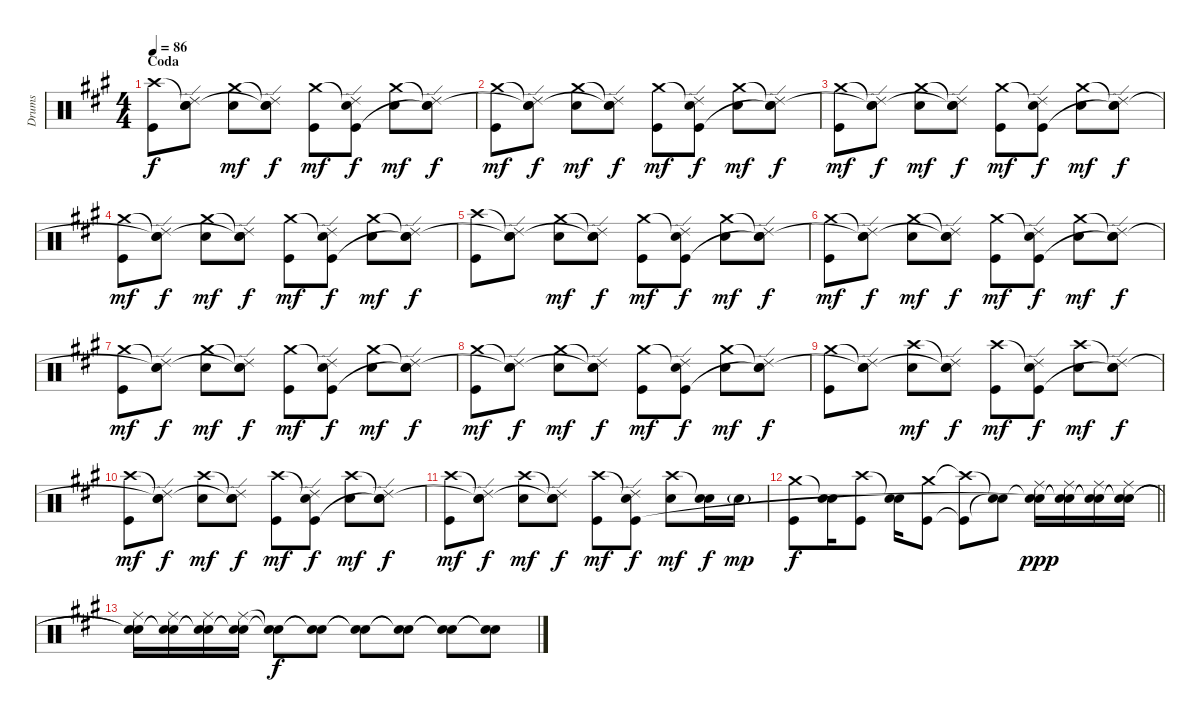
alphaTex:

\track ("Drums" "Drums") {instrument percussion}
\staff {score}
\articulation defaults
\ts (4 4)
\section ("" "Coda")
\tempo 86
\clef neutral
\ks a
("Crash high (hit)" "Kick (hit)").8{dy f} ("Snare (hit)"{t} "Ride (edge) 2" "Snare (hit)").8 ("Crash medium (hit)" "Electric Snare (hit)").8{dy mf} ("Snare (hit)"{t} "Ride (edge) 2" "Snare (hit)"{t}).8{dy f} ("Crash medium (hit)" "Kick (hit)").8{dy mf} ("Snare (hit)"{t} "Ride (edge) 2" "Kick (hit)").8{dy f} ("Crash medium (hit)" "Electric Snare (hit)").8{dy mf} ("Snare (hit)"{t} "Ride (edge) 2" "Snare (hit)"{t}).8{dy f} |
("Crash medium (hit)" "Kick (hit)").8{dy mf} ("Snare (hit)"{t} "Ride (edge) 2" "Snare (hit)"{t}).8{dy f} ("Crash medium (hit)" "Electric Snare (hit)").8{dy mf} ("Snare (hit)"{t} "Ride (edge) 2" "Snare (hit)"{t}).8{dy f} ("Crash medium (hit)" "Kick (hit)").8{dy mf} ("Snare (hit)"{t} "Ride (edge) 2" "Kick (hit)").8{dy f} ("Crash medium (hit)" "Electric Snare (hit)").8{dy mf} ("Snare (hit)"{t} "Ride (edge) 2" "Snare (hit)"{t}).8{dy f} |
("Crash medium (hit)" "Kick (hit)").8{dy mf} ("Snare (hit)"{t} "Ride (edge) 2" "Snare (hit)"{t}).8{dy f} ("Crash medium (hit)" "Electric Snare (hit)").8{dy mf} ("Snare (hit)"{t} "Ride (edge) 2" "Snare (hit)"{t}).8{dy f} ("Crash medium (hit)" "Kick (hit)").8{dy mf} ("Snare (hit)"{t} "Ride (edge) 2" "Kick (hit)").8{dy f} ("Crash medium (hit)" "Electric Snare (hit)").8{dy mf} ("Snare (hit)"{t} "Ride (edge) 2" "Snare (hit)"{t}).8{dy f} |
("Crash medium (hit)" "Kick (hit)").8{dy mf} ("Snare (hit)"{t} "Ride (edge) 2" "Snare (hit)"{t}).8{dy f} ("Crash medium (hit)" "Electric Snare (hit)").8{dy mf} ("Snare (hit)"{t} "Ride (edge) 2" "Snare (hit)"{t}).8{dy f} ("Crash medium (hit)" "Kick (hit)").8{dy mf} ("Snare (hit)"{t} "Ride (edge) 2" "Kick (hit)").8{dy f} ("Crash medium (hit)" "Electric Snare (hit)").8{dy mf} ("Snare (hit)"{t} "Ride (edge) 2" "Snare (hit)"{t}).8{dy f} |
("Crash high (hit)" "Kick (hit)").8 ("Snare (hit)"{t} "Ride (edge) 2" "Snare (hit)"{t}).8 ("Crash medium (hit)" "Electric Snare (hit)").8{dy mf} ("Snare (hit)"{t} "Ride (edge) 2" "Snare (hit)"{t}).8{dy f} ("Crash medium (hit)" "Kick (hit)").8{dy mf} ("Snare (hit)"{t} "Ride (edge) 2" "Kick (hit)").8{dy f} ("Crash medium (hit)" "Electric Snare (hit)").8{dy mf} ("Snare (hit)"{t} "Ride (edge) 2" "Snare (hit)"{t}).8{dy f} |
("Crash medium (hit)" "Kick (hit)").8{dy mf} ("Snare (hit)"{t} "Ride (edge) 2" "Snare (hit)"{t}).8{dy f} ("Crash medium (hit)" "Electric Snare (hit)").8{dy mf} ("Snare (hit)"{t} "Ride (edge) 2" "Snare (hit)"{t}).8{dy f} ("Crash medium (hit)" "Kick (hit)").8{dy mf} ("Snare (hit)"{t} "Ride (edge) 2" "Kick (hit)").8{dy f} ("Crash medium (hit)" "Electric Snare (hit)").8{dy mf} ("Snare (hit)"{t} "Ride (edge) 2" "Snare (hit)"{t}).8{dy f} |
("Crash medium (hit)" "Kick (hit)").8{dy mf} ("Snare (hit)"{t} "Ride (edge) 2" "Snare (hit)"{t}).8{dy f} ("Crash medium (hit)" "Electric Snare (hit)").8{dy mf} ("Snare (hit)"{t} "Ride (edge) 2" "Snare (hit)"{t}).8{dy f} ("Crash medium (hit)" "Kick (hit)").8{dy mf} ("Snare (hit)"{t} "Ride (edge) 2" "Kick (hit)").8{dy f} ("Crash medium (hit)" "Electric Snare (hit)").8{dy mf} ("Snare (hit)"{t} "Ride (edge) 2" "Snare (hit)"{t}).8{dy f} |
("Crash medium (hit)" "Kick (hit)").8{dy mf} ("Snare (hit)"{t} "Ride (edge) 2" "Snare (hit)"{t}).8{dy f} ("Crash medium (hit)" "Electric Snare (hit)").8{dy mf} ("Snare (hit)"{t} "Ride (edge) 2" "Snare (hit)"{t}).8{dy f} ("Crash medium (hit)" "Kick (hit)").8{dy mf} ("Snare (hit)"{t} "Ride (edge) 2" "Kick (hit)").8{dy f} ("Crash medium (hit)" "Electric Snare (hit)").8{dy mf} ("Snare (hit)"{t} "Ride (edge) 2" "Snare (hit)"{t}).8{dy f} |
("Crash medium (hit)" "Kick (hit)").8 ("Snare (hit)"{t} "Ride (edge) 2" "Snare (hit)"{t}).8 ("Crash high (hit)" "Electric Snare (hit)").8{dy mf} ("Snare (hit)"{t} "Ride (edge) 2" "Snare (hit)"{t}).8{dy f} ("Crash high (hit)" "Kick (hit)").8{dy mf} ("Snare (hit)"{t} "Ride (edge) 2" "Kick (hit)").8{dy f} ("Crash high (hit)" "Electric Snare (hit)").8{dy mf} ("Snare (hit)"{t} "Ride (edge) 2" "Snare (hit)"{t}).8{dy f} |
("Crash high (hit)" "Kick (hit)").8{dy mf} ("Snare (hit)"{t} "Ride (edge) 2" "Snare (hit)"{t}).8{dy f} ("Crash high (hit)" "Electric Snare (hit)").8{dy mf} ("Snare (hit)"{t} "Ride (edge) 2" "Snare (hit)"{t}).8{dy f} ("Crash high (hit)" "Kick (hit)").8{dy mf} ("Snare (hit)"{t} "Ride (edge) 2" "Kick (hit)").8{dy f} ("Crash high (hit)" "Electric Snare (hit)").8{dy mf} ("Snare (hit)"{t} "Ride (edge) 2" "Snare (hit)"{t}).8{dy f} |
("Crash high (hit)" "Kick (hit)").8{dy mf} ("Snare (hit)"{t} "Ride (edge) 2" "Snare (hit)"{t}).8{dy f} ("Crash high (hit)" "Electric Snare (hit)").8{dy mf} ("Snare (hit)"{t} "Ride (edge) 2" "Snare (hit)"{t}).8{dy f} ("Crash high (hit)" "Kick (hit)").8{dy mf} ("Snare (hit)"{t} "Ride (edge) 2" "Kick (hit)").8{dy f} ("Crash high (hit)" "Electric Snare (hit)").8{dy mf} ("Snare (hit)"{t} "Electric Snare (hit)").16{dy f} "Electric Snare (hit)"{g}.16{dy mp} |
\barLineRight lightlight
("Crash medium (hit)" "Kick (hit)").8{dy f} ("Snare (hit)"{t} "Electric Snare (hit)").16 ("Crash high (hit)" "Kick (hit)").8 ("Snare (hit)"{t} "Electric Snare (hit)").16 ("Crash medium (hit)" "Kick (hit)").8 ("Crash high (hit)"{t} "Kick (hit)"{t}).8{volume 14} ("Snare (hit)"{t} "Snare (hit)"{t}).8{volume 11} ("Snare (hit)"{t} "Ride (middle)" "Snare (hit)"{t}).16{dy ppp volume 10} ("Snare (hit)"{t} "Ride (middle)" "Snare (hit)"{t}).16 ("Snare (hit)"{t} "Ride (middle)" "Snare (hit)"{t}).16{volume 9} ("Snare (hit)"{t} "Ride (middle)" "Snare (hit)"{t}).16 |
("Snare (hit)"{t} "Ride (middle)" "Snare (hit)"{t}).16{volume 8} ("Snare (hit)"{t} "Ride (middle)" "Snare (hit)"{t}).16 ("Snare (hit)"{t} "Ride (middle)" "Snare (hit)"{t}).16{volume 7} ("Snare (hit)"{t} "Ride (middle)" "Snare (hit)"{t}).16 ("Snare (hit)"{t} "Snare (hit)"{t}).8{dy f volume 6} ("Snare (hit)"{t} "Snare (hit)"{t}).8{volume 5} ("Snare (hit)"{t} "Snare (hit)"{t}).8{volume 4} ("Snare (hit)"{t} "Snare (hit)"{t}).8{volume 3} ("Snare (hit)"{t} "Snare (hit)"{t}).8{volume 2} ("Snare (hit)"{t} "Snare (hit)"{t}).8{volume 1}
